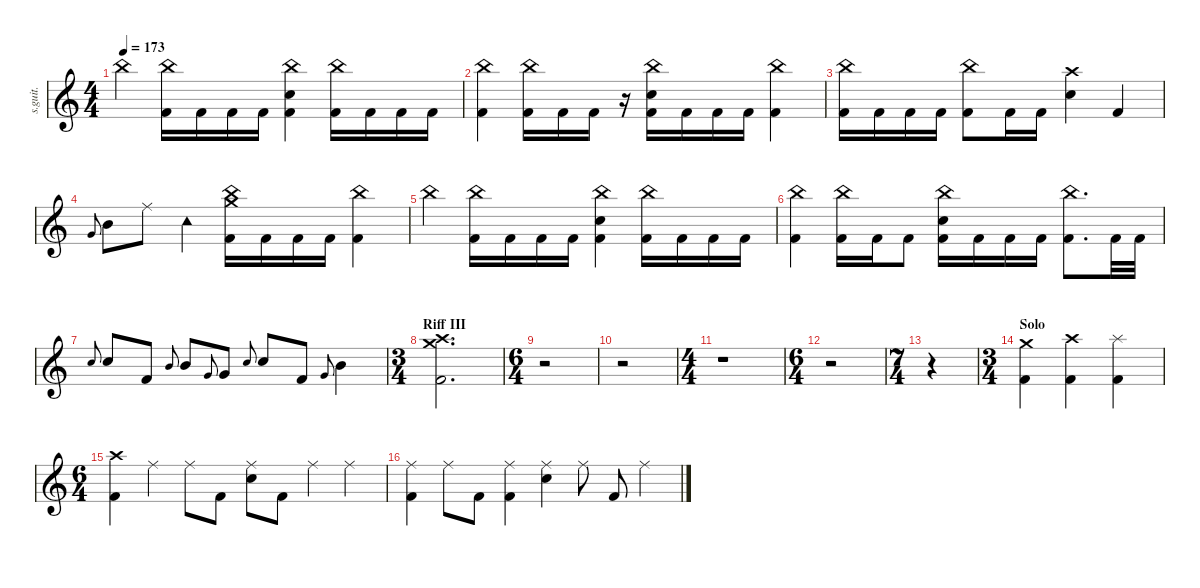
\defaultSystemsLayout 4
\hideDynamics
\bracketExtendMode nobrackets
\track ("II" "s.guit.") {instrument percussion}
\staff {score}
\articulation defaults
\ts (4 4)
\tempo 173
\clef g2
\ks c "China (hit)".4{lyrics (0 "") lyrics (1 "") lyrics (2 "") lyrics (3 "") lyrics (4 "") dy mf}
("Kick (hit) 2" "China (hit)").16{lyrics (0 "") lyrics (1 "") lyrics (2 "") lyrics (3 "") lyrics (4 "")} "Kick (hit) 2".16{lyrics (0 "") lyrics (1 "") lyrics (2 "") lyrics (3 "") lyrics (4 "")} "Kick (hit) 2".16{lyrics (0 "") lyrics (1 "") lyrics (2 "") lyrics (3 "") lyrics (4 "")} "Kick (hit) 2".16{lyrics (0 "") lyrics (1 "") lyrics (2 "") lyrics (3 "") lyrics (4 "")} ("China (hit)" "Snare (hit) 2" "Kick (hit) 2").4{lyrics (0 "") lyrics (1 "") lyrics (2 "") lyrics (3 "") lyrics (4 "")} ("Kick (hit) 2" "China (hit)").16{lyrics (0 "") lyrics (1 "") lyrics (2 "") lyrics (3 "") lyrics (4 "")} "Kick (hit) 2".16{lyrics (0 "") lyrics (1 "") lyrics (2 "") lyrics (3 "") lyrics (4 "")} "Kick (hit) 2".16{lyrics (0 "") lyrics (1 "") lyrics (2 "") lyrics (3 "") lyrics (4 "")} "Kick (hit) 2".16{lyrics (0 "") lyrics (1 "") lyrics (2 "") lyrics (3 "") lyrics (4 "")} |
("Kick (hit) 2" "China (hit)").4{lyrics (0 "") lyrics (1 "") lyrics (2 "") lyrics (3 "") lyrics (4 "")} ("Kick (hit) 2" "China (hit)").16{lyrics (0 "") lyrics (1 "") lyrics (2 "") lyrics (3 "") lyrics (4 "")} "Kick (hit) 2".16{lyrics (0 "") lyrics (1 "") lyrics (2 "") lyrics (3 "") lyrics (4 "")} "Kick (hit) 2".16{lyrics (0 "") lyrics (1 "") lyrics (2 "") lyrics (3 "") lyrics (4 "")} r.16 ("Kick (hit) 2" "China (hit)" "Snare (hit) 2").16{lyrics (0 "") lyrics (1 "") lyrics (2 "") lyrics (3 "") lyrics (4 "")} "Kick (hit) 2".16{lyrics (0 "") lyrics (1 "") lyrics (2 "") lyrics (3 "") lyrics (4 "")} "Kick (hit) 2".16{lyrics (0 "") lyrics (1 "") lyrics (2 "") lyrics (3 "") lyrics (4 "")} "Kick (hit) 2".16{lyrics (0 "") lyrics (1 "") lyrics (2 "") lyrics (3 "") lyrics (4 "")} ("Kick (hit) 2" "China (hit)").4{lyrics (0 "") lyrics (1 "") lyrics (2 "") lyrics (3 "") lyrics (4 "")} |
("Kick (hit) 2" "China (hit)").16{lyrics (0 "") lyrics (1 "") lyrics (2 "") lyrics (3 "") lyrics (4 "")} "Kick (hit) 2".16{lyrics (0 "") lyrics (1 "") lyrics (2 "") lyrics (3 "") lyrics (4 "")} "Kick (hit) 2".16{lyrics (0 "") lyrics (1 "") lyrics (2 "") lyrics (3 "") lyrics (4 "")} "Kick (hit) 2".16{lyrics (0 "") lyrics (1 "") lyrics (2 "") lyrics (3 "") lyrics (4 "")} ("Kick (hit) 2" "China (hit)").8{lyrics (0 "") lyrics (1 "") lyrics (2 "") lyrics (3 "") lyrics (4 "")} "Kick (hit) 2".16{lyrics (0 "") lyrics (1 "") lyrics (2 "") lyrics (3 "") lyrics (4 "")} "Kick (hit) 2".16{lyrics (0 "") lyrics (1 "") lyrics (2 "") lyrics (3 "") lyrics (4 "")} ("Snare (hit) 2" "Crash high (hit)").4{lyrics (0 "") lyrics (1 "") lyrics (2 "") lyrics (3 "") lyrics (4 "")} "Kick (hit) 2".4{lyrics (0 "") lyrics (1 "") lyrics (2 "") lyrics (3 "") lyrics (4 "")} |
"Very Low Tom (hit)".8{lyrics (0 "") lyrics (1 "") lyrics (2 "") lyrics (3 "") lyrics (4 "") gr onbeat} "Mid Tom (hit)".8{lyrics (0 "") lyrics (1 "") lyrics (2 "") lyrics (3 "") lyrics (4 "")} "Ride (middle)".8{lyrics (0 "") lyrics (1 "") lyrics (2 "") lyrics (3 "") lyrics (4 "")} "Tambourine (hit)".4{lyrics (0 "") lyrics (1 "") lyrics (2 "") lyrics (3 "") lyrics (4 "")} ("Kick (hit) 2" "Crash medium (hit)" "China (hit)").16{lyrics (0 "") lyrics (1 "") lyrics (2 "") lyrics (3 "") lyrics (4 "")} "Kick (hit) 2".16{lyrics (0 "") lyrics (1 "") lyrics (2 "") lyrics (3 "") lyrics (4 "")} "Kick (hit) 2".16{lyrics (0 "") lyrics (1 "") lyrics (2 "") lyrics (3 "") lyrics (4 "")} "Kick (hit) 2".16{lyrics (0 "") lyrics (1 "") lyrics (2 "") lyrics (3 "") lyrics (4 "")} ("Kick (hit) 2" "China (hit)").4{lyrics (0 "") lyrics (1 "") lyrics (2 "") lyrics (3 "") lyrics (4 "")} |
"China (hit)".4{lyrics (0 "") lyrics (1 "") lyrics (2 "") lyrics (3 "") lyrics (4 "")} ("Kick (hit) 2" "China (hit)").16{lyrics (0 "") lyrics (1 "") lyrics (2 "") lyrics (3 "") lyrics (4 "")} "Kick (hit) 2".16{lyrics (0 "") lyrics (1 "") lyrics (2 "") lyrics (3 "") lyrics (4 "")} "Kick (hit) 2".16{lyrics (0 "") lyrics (1 "") lyrics (2 "") lyrics (3 "") lyrics (4 "")} "Kick (hit) 2".16{lyrics (0 "") lyrics (1 "") lyrics (2 "") lyrics (3 "") lyrics (4 "")} ("China (hit)" "Snare (hit) 2" "Kick (hit) 2").4{lyrics (0 "") lyrics (1 "") lyrics (2 "") lyrics (3 "") lyrics (4 "")} ("Kick (hit) 2" "China (hit)").16{lyrics (0 "") lyrics (1 "") lyrics (2 "") lyrics (3 "") lyrics (4 "")} "Kick (hit) 2".16{lyrics (0 "") lyrics (1 "") lyrics (2 "") lyrics (3 "") lyrics (4 "")} "Kick (hit) 2".16{lyrics (0 "") lyrics (1 "") lyrics (2 "") lyrics (3 "") lyrics (4 "")} "Kick (hit) 2".16{lyrics (0 "") lyrics (1 "") lyrics (2 "") lyrics (3 "") lyrics (4 "")} |
("Kick (hit) 2" "China (hit)").4{lyrics (0 "") lyrics (1 "") lyrics (2 "") lyrics (3 "") lyrics (4 "")} ("Kick (hit) 2" "China (hit)").16{lyrics (0 "") lyrics (1 "") lyrics (2 "") lyrics (3 "") lyrics (4 "")} "Kick (hit) 2".16{lyrics (0 "") lyrics (1 "") lyrics (2 "") lyrics (3 "") lyrics (4 "")} "Kick (hit) 2".8{lyrics (0 "") lyrics (1 "") lyrics (2 "") lyrics (3 "") lyrics (4 "")} ("Kick (hit) 2" "China (hit)" "Snare (hit) 2").16{lyrics (0 "") lyrics (1 "") lyrics (2 "") lyrics (3 "") lyrics (4 "")} "Kick (hit) 2".16{lyrics (0 "") lyrics (1 "") lyrics (2 "") lyrics (3 "") lyrics (4 "")} "Kick (hit) 2".16{lyrics (0 "") lyrics (1 "") lyrics (2 "") lyrics (3 "") lyrics (4 "")} "Kick (hit) 2".16{lyrics (0 "") lyrics (1 "") lyrics (2 "") lyrics (3 "") lyrics (4 "")} ("Kick (hit) 2" "China (hit)").8{d lyrics (0 "") lyrics (1 "") lyrics (2 "") lyrics (3 "") lyrics (4 "")} "Kick (hit) 2".32{lyrics (0 "") lyrics (1 "") lyrics (2 "") lyrics (3 "") lyrics (4 "")} "Kick (hit) 2".32{lyrics (0 "") lyrics (1 "") lyrics (2 "") lyrics (3 "") lyrics (4 "")} |
"Snare (hit) 2".8{lyrics (0 "") lyrics (1 "") lyrics (2 "") lyrics (3 "") lyrics (4 "") gr onbeat} "Snare (hit) 2".8{lyrics (0 "") lyrics (1 "") lyrics (2 "") lyrics (3 "") lyrics (4 "")} "Kick (hit) 2".8{lyrics (0 "") lyrics (1 "") lyrics (2 "") lyrics (3 "") lyrics (4 "")} "Mid Tom (hit)".8{lyrics (0 "") lyrics (1 "") lyrics (2 "") lyrics (3 "") lyrics (4 "") gr onbeat} "Mid Tom (hit)".8{lyrics (0 "") lyrics (1 "") lyrics (2 "") lyrics (3 "") lyrics (4 "")} "Very Low Tom (hit)".8{lyrics (0 "") lyrics (1 "") lyrics (2 "") lyrics (3 "") lyrics (4 "") gr onbeat} "Very Low Tom (hit)".8{lyrics (0 "") lyrics (1 "") lyrics (2 "") lyrics (3 "") lyrics (4 "")} "Snare (hit) 2".8{lyrics (0 "") lyrics (1 "") lyrics (2 "") lyrics (3 "") lyrics (4 "") gr onbeat} "Snare (hit) 2".8{lyrics (0 "") lyrics (1 "") lyrics (2 "") lyrics (3 "") lyrics (4 "")} "Kick (hit) 2".8{lyrics (0 "") lyrics (1 "") lyrics (2 "") lyrics (3 "") lyrics (4 "")} "Very Low Tom (hit)".8{lyrics (0 "") lyrics (1 "") lyrics (2 "") lyrics (3 "") lyrics (4 "") gr onbeat} "Mid Tom (hit)".4{lyrics (0 "") lyrics (1 "") lyrics (2 "") lyrics (3 "") lyrics (4 "")} |
\ts (3 4)
\beaming (8 2 2 2 2)
\section ("" "Riff III")
("Kick (hit) 2" "Crash medium (hit)" "Crash high (hit)").2{d lyrics (0 "") lyrics (1 "") lyrics (2 "") lyrics (3 "") lyrics (4 "")} |
\ts (6 4)
\beaming (8 2 2 2 2)
r.2 |
r.2 |
\ts (4 4)
\beaming (8 2 2 2 2)
r.1 |
\ts (6 4)
\beaming (8 2 2 2 2)
r.2 |
\ts (7 4)
\beaming (8 2 2 2 2)
r.4 |
\ts (3 4)
\beaming (8 2 2 2 2)
\section ("" "Solo")
("Kick (hit) 2" "Crash medium (hit)").4{lyrics (0 "") lyrics (1 "") lyrics (2 "") lyrics (3 "") lyrics (4 "")} ("Kick (hit) 2" "Crash high (hit)").4{lyrics (0 "") lyrics (1 "") lyrics (2 "") lyrics (3 "") lyrics (4 "")} ("Kick (hit) 2" "Splash (hit)").4{lyrics (0 "") lyrics (1 "") lyrics (2 "") lyrics (3 "") lyrics (4 "")} |
\ts (6 4)
\beaming (8 2 2 2 2)
("Kick (hit) 2" "Crash high (hit)").4{lyrics (0 "") lyrics (1 "") lyrics (2 "") lyrics (3 "") lyrics (4 "")} "Ride (middle)".4{lyrics (0 "") lyrics (1 "") lyrics (2 "") lyrics (3 "") lyrics (4 "")} "Ride (middle)".8{lyrics (0 "") lyrics (1 "") lyrics (2 "") lyrics (3 "") lyrics (4 "")} "Kick (hit) 2".8{lyrics (0 "") lyrics (1 "") lyrics (2 "") lyrics (3 "") lyrics (4 "")} ("Ride (middle)" "Snare (hit) 2").8{lyrics (0 "") lyrics (1 "") lyrics (2 "") lyrics (3 "") lyrics (4 "")} "Kick (hit) 2".8{lyrics (0 "") lyrics (1 "") lyrics (2 "") lyrics (3 "") lyrics (4 "")} "Ride (middle)".4{lyrics (0 "") lyrics (1 "") lyrics (2 "") lyrics (3 "") lyrics (4 "")} "Ride (middle)".4{lyrics (0 "") lyrics (1 "") lyrics (2 "") lyrics (3 "") lyrics (4 "")} |
("Ride (middle)" "Kick (hit) 2").4{lyrics (0 "") lyrics (1 "") lyrics (2 "") lyrics (3 "") lyrics (4 "")} "Ride (middle)".8{lyrics (0 "") lyrics (1 "") lyrics (2 "") lyrics (3 "") lyrics (4 "")} "Kick (hit) 2".8{lyrics (0 "") lyrics (1 "") lyrics (2 "") lyrics (3 "") lyrics (4 "")} ("Ride (middle)" "Kick (hit) 2").4{lyrics (0 "") lyrics (1 "") lyrics (2 "") lyrics (3 "") lyrics (4 "")} ("Ride (middle)" "Snare (hit) 2").4{lyrics (0 "") lyrics (1 "") lyrics (2 "") lyrics (3 "") lyrics (4 "")} "Ride (middle)".8{lyrics (0 "") lyrics (1 "") lyrics (2 "") lyrics (3 "") lyrics (4 "")} "Kick (hit) 2".8{lyrics (0 "") lyrics (1 "") lyrics (2 "") lyrics (3 "") lyrics (4 "")} "Ride (middle)".4{lyrics (0 "") lyrics (1 "") lyrics (2 "") lyrics (3 "") lyrics (4 "")}
